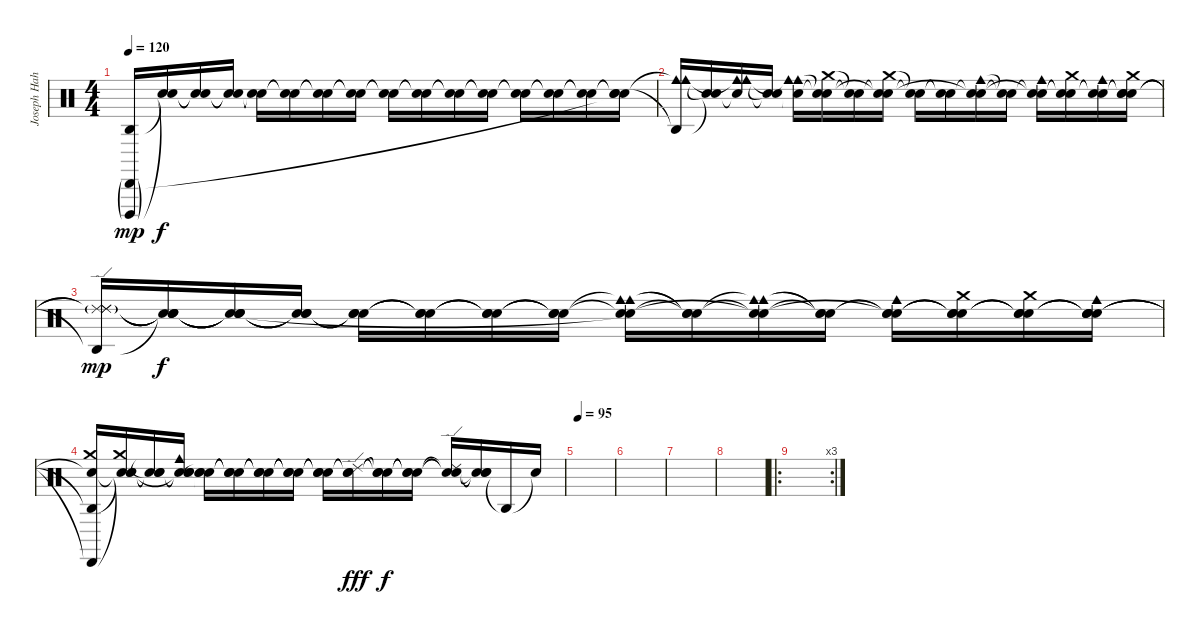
\track ("Joseph Hahn (Strange sounds/Turntables)" "Joseph Hah") {instrument percussion}
\staff {score}
\articulation defaults
\ts (4 4)
\tempo 120
\tempo 95
\tempo 120
\clef neutral
\ks c
("Agogo high (hit)" "Cuica (open)"{g} "Cabasa (hit)"{g}).16{dy mp} ("Snare (hit)"{t} "Snare (hit)"{t}).16{dy f} ("Snare (hit)"{t} "Snare (hit)"{t}).16 ("Snare (hit)"{t} "Snare (hit)"{t}).16 ("Snare (hit)"{t} "Snare (hit)"{t}).16 ("Snare (hit)"{t} "Snare (hit)"{t}).16 ("Snare (hit)"{t} "Snare (hit)"{t}).16 ("Snare (hit)"{t} "Snare (hit)"{t}).16 ("Snare (hit)"{t} "Snare (hit)"{t}).16 ("Snare (hit)"{t} "Snare (hit)"{t}).16 ("Snare (hit)"{t} "Snare (hit)"{t}).16 ("Snare (hit)"{t} "Snare (hit)"{t}).16 ("Snare (hit)"{t} "Snare (hit)"{t}).16 ("Snare (hit)"{t} "Snare (hit)"{t}).16 ("Snare (hit)"{t} "Snare (hit)"{t}).16 ("Snare (hit)"{t} "Snare (hit)"{t} "Snare (hit)"{t}).16 |
("Agogo high (hit)"{t} "Cowbell medium (hit)" "Cowbell medium (hit)"{t}).16 ("Snare (hit)"{t} "Snare (hit)"{t}).16 ("Snare (hit)"{t} "Cowbell medium (hit)" "Cowbell medium (hit)"{t}).16 ("Snare (hit)"{t} "Snare (hit)"{t}).16 ("Snare (hit)"{t} "Cowbell medium (hit)" "Cowbell medium (hit)"{t}).16 ("Snare (hit)"{t} "Crash medium (hit)" "Snare (hit)"{t}).16 ("Snare (hit)"{t} "Snare (hit)"{t}).16 ("Snare (hit)"{t} "Crash medium (hit)" "Snare (hit)"{t}).16 ("Snare (hit)"{t} "Snare (hit)"{t}).16 ("Snare (hit)"{t} "Snare (hit)"{t}).16 ("Snare (hit)"{t} "Cowbell medium (hit)" "Snare (hit)"{t}).16 ("Snare (hit)"{t} "Snare (hit)"{t}).16 ("Snare (hit)"{t} "Cowbell medium (hit)" "Snare (hit)"{t}).16 ("Snare (hit)"{t} "Crash medium (hit)" "Snare (hit)"{t}).16 ("Snare (hit)"{t} "Cowbell medium (hit)" "Snare (hit)"{t}).16 ("Snare (hit)"{t} "Crash medium (hit)" "Snare (hit)"{t} "Snare (hit)").16 |
("Agogo high (hit)"{t} "Ride (edge) 2"{g} "Ride (edge) 2"{t} "Ride (edge) 2"{t}).16{dy mp} ("Snare (hit)"{t} "Snare (hit)"{t} "Snare (hit)"{t} "Snare (hit)"{t}).16{dy f} ("Snare (hit)"{t} "Snare (hit)"{t} "Snare (hit)"{t} "Snare (hit)"{t}).16 ("Snare (hit)"{t} "Snare (hit)"{t} "Snare (hit)"{t}).16 ("Snare (hit)"{t} "Snare (hit)"{t} "Snare (hit)"{t}).16 ("Snare (hit)"{t} "Snare (hit)"{t} "Snare (hit)"{t}).16 ("Snare (hit)"{t} "Snare (hit)"{t} "Snare (hit)"{t}).16 ("Snare (hit)"{t} "Snare (hit)"{t} "Snare (hit)"{t}).16 ("Snare (hit)"{t} "Cowbell medium (hit)" "Cowbell medium (hit)"{t} "Snare (hit)"{t}).16 ("Snare (hit)"{t} "Snare (hit)"{t} "Snare (hit)"{t}).16 ("Snare (hit)"{t} "Cowbell medium (hit)" "Cowbell medium (hit)"{t} "Snare (hit)"{t}).16 ("Snare (hit)"{t} "Snare (hit)"{t} "Snare (hit)"{t}).16 ("Snare (hit)"{t} "Cowbell medium (hit)" "Snare (hit)"{t} "Snare (hit)"{t}).16 ("Snare (hit)"{t} "Crash medium (hit)" "Snare (hit)"{t} "Snare (hit)"{t}).16 ("Snare (hit)"{t} "Crash medium (hit)" "Snare (hit)"{t} "Snare (hit)"{t}).16 ("Snare (hit)"{t} "Cowbell medium (hit)" "Snare (hit)"{t} "Snare (hit)"{t} "Snare (hit)").16 |
("Agogo high (hit)"{t} "Crash medium (hit)" "Snare (hit)"{t} "Cabasa (hit)"{t}).16 ("Snare (hit)"{t} "Crash medium (hit)" "Snare (hit)"{t} "Snare (hit)"{t}).16 ("Snare (hit)"{t} "Snare (hit)"{t} "Snare (hit)"{t}).16 ("Snare (hit)"{t} "Cowbell medium (hit)" "Snare (hit)"{t} "Snare (hit)"{t}).16 ("Snare (hit)"{t} "Snare (hit)"{t} "Snare (hit)"{t}).16 ("Snare (hit)"{t} "Snare (hit)"{t} "Snare (hit)"{t}).16 ("Snare (hit)"{t} "Snare (hit)"{t} "Snare (hit)"{t}).16 ("Snare (hit)"{t} "Snare (hit)"{t} "Snare (hit)"{t}).16 ("Snare (hit)"{t} "Snare (hit)"{t} "Snare (hit)"{t}).16 ("Ride (edge) 2" "Snare (hit)"{t} "Snare (hit)"{t}).16{dy fff} ("Snare (hit)"{t} "Snare (hit)"{t} "Snare (hit)"{t}).16{dy f} ("Snare (hit)"{t} "Snare (hit)"{t} "Snare (hit)"{t}).16 ("Ride (edge) 2"{t} "Snare (hit)"{t} "Snare (hit)"{t}).16 ("Snare (hit)"{t} "Snare (hit)"{t} "Snare (hit)"{t}).16 "Agogo high (hit)"{t}.16 "Snare (hit)"{t}.16 |
\tempo 95
|
|
|
|
\ro
\rc 3
